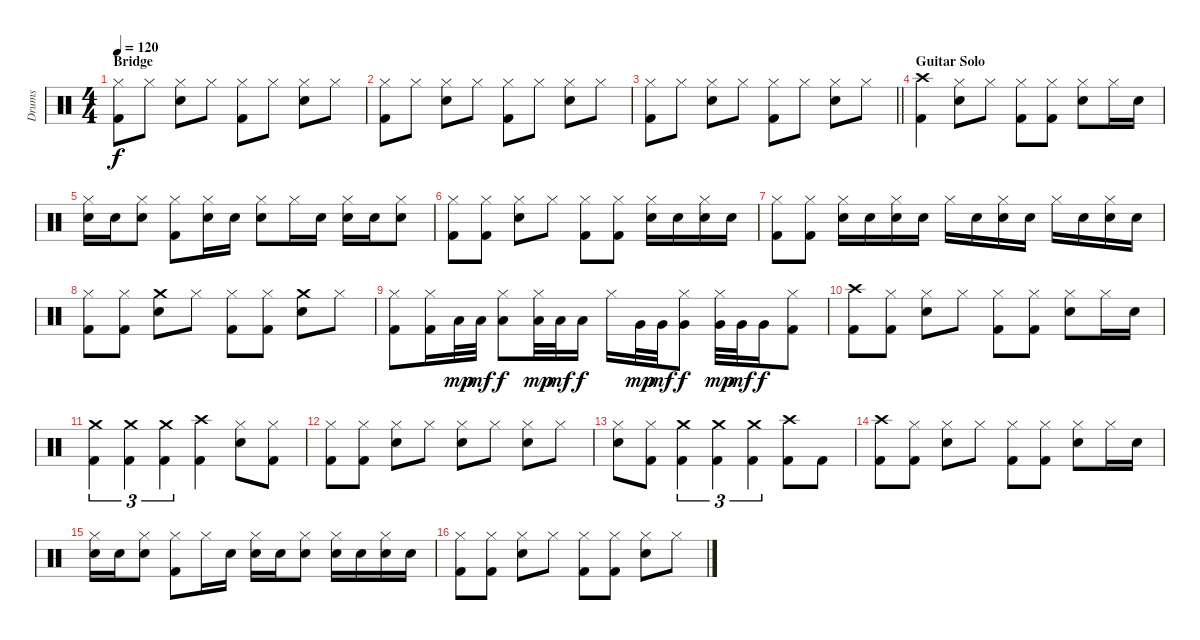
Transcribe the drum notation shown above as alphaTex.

\track ("Drums" "Drums") {instrument percussion}
\staff {score}
\articulation defaults
\ts (4 4)
\section ("" "Bridge")
\tempo 120
\clef neutral
\ks c
("Hi-Hat (closed)" "Kick (hit) 2").8{dy f} "Hi-Hat (closed)".8 ("Hi-Hat (closed)" "Electric Snare (hit)").8 "Hi-Hat (closed)".8 ("Hi-Hat (closed)" "Kick (hit) 2").8 "Hi-Hat (closed)".8 ("Hi-Hat (closed)" "Electric Snare (hit)").8 "Hi-Hat (closed)".8 |
("Hi-Hat (closed)" "Kick (hit) 2").8 "Hi-Hat (closed)".8 ("Hi-Hat (closed)" "Electric Snare (hit)").8 "Hi-Hat (closed)".8 ("Hi-Hat (closed)" "Kick (hit) 2").8 "Hi-Hat (closed)".8 ("Hi-Hat (closed)" "Electric Snare (hit)").8 "Hi-Hat (closed)".8 |
\barLineRight lightlight
("Hi-Hat (closed)" "Kick (hit) 2").8 "Hi-Hat (closed)".8 ("Hi-Hat (closed)" "Electric Snare (hit)").8 "Hi-Hat (closed)".8 ("Hi-Hat (closed)" "Kick (hit) 2").8 "Hi-Hat (closed)".8 ("Hi-Hat (closed)" "Electric Snare (hit)").8 "Hi-Hat (closed)".8 |
\section ("" "Guitar Solo")
("Crash high (hit)" "Kick (hit) 2").4 ("Hi-Hat (closed)" "Electric Snare (hit)").8 "Hi-Hat (closed)".8 ("Hi-Hat (closed)" "Kick (hit) 2").8 ("Hi-Hat (closed)" "Kick (hit) 2").8 ("Hi-Hat (closed)" "Electric Snare (hit)").8 "Hi-Hat (closed)".16 "Electric Snare (hit)".16 |
("Hi-Hat (closed)" "Electric Snare (hit)").16 "Electric Snare (hit)".16 ("Hi-Hat (closed)" "Electric Snare (hit)").8 ("Hi-Hat (closed)" "Kick (hit) 2").8 ("Hi-Hat (closed)" "Electric Snare (hit)").16 "Electric Snare (hit)".16 ("Hi-Hat (closed)" "Electric Snare (hit)").8 "Hi-Hat (closed)".16 "Electric Snare (hit)".16 ("Hi-Hat (closed)" "Electric Snare (hit)").16 "Electric Snare (hit)".16 ("Hi-Hat (closed)" "Electric Snare (hit)").8 |
("Hi-Hat (closed)" "Kick (hit) 2").8 ("Hi-Hat (closed)" "Kick (hit) 2").8 ("Hi-Hat (closed)" "Electric Snare (hit)").8 "Hi-Hat (closed)".8 ("Hi-Hat (closed)" "Kick (hit) 2").8 ("Hi-Hat (closed)" "Kick (hit) 2").8 ("Hi-Hat (closed)" "Electric Snare (hit)").16 "Electric Snare (hit)".16 ("Hi-Hat (closed)" "Electric Snare (hit)").16 "Electric Snare (hit)".16 |
("Hi-Hat (closed)" "Kick (hit) 2").8 ("Hi-Hat (closed)" "Kick (hit) 2").8 ("Hi-Hat (closed)" "Electric Snare (hit)").16 "Electric Snare (hit)".16 ("Hi-Hat (closed)" "Electric Snare (hit)").16 "Electric Snare (hit)".16 "Hi-Hat (closed)".16 "Electric Snare (hit)".16 ("Hi-Hat (closed)" "Electric Snare (hit)").16 "Electric Snare (hit)".16 "Hi-Hat (closed)".16 "Electric Snare (hit)".16 ("Hi-Hat (closed)" "Electric Snare (hit)").16 "Electric Snare (hit)".16 |
("Hi-Hat (closed)" "Kick (hit) 2").8 ("Hi-Hat (closed)" "Kick (hit) 2").8 ("Crash medium (hit)" "Electric Snare (hit)").8 "Hi-Hat (closed)".8 ("Hi-Hat (closed)" "Kick (hit) 2").8 ("Hi-Hat (closed)" "Kick (hit) 2").8 ("Crash medium (hit)" "Electric Snare (hit)").8 "Hi-Hat (closed)".8 |
("Hi-Hat (closed)" "Kick (hit) 2").8 ("Hi-Hat (closed)" "Kick (hit) 2").16 "Low Tom (hit)".32{dy mp} "Low Tom (hit)".32{dy mf} ("Hi-Hat (closed)" "Low Tom (hit)").8{dy f} ("Hi-Hat (closed)" "Low Tom (hit)").32{dy mp} "Low Tom (hit)".32{dy mf} "Low Tom (hit)".16{dy f} "Hi-Hat (closed)".16 "Very Low Tom (hit)".32{dy mp} "Very Low Tom (hit)".32{dy mf} ("Hi-Hat (closed)" "Very Low Tom (hit)").8{dy f} ("Hi-Hat (closed)" "Very Low Tom (hit)").32{dy mp} "Very Low Tom (hit)".32{dy mf} "Very Low Tom (hit)".16{dy f} ("Hi-Hat (closed)" "Kick (hit) 2").8 |
("Crash high (hit)" "Kick (hit) 2").8 ("Hi-Hat (closed)" "Kick (hit) 2").8 ("Hi-Hat (closed)" "Electric Snare (hit)").8 "Hi-Hat (closed)".8 ("Hi-Hat (closed)" "Kick (hit) 2").8 ("Hi-Hat (closed)" "Kick (hit) 2").8 ("Hi-Hat (closed)" "Electric Snare (hit)").8 "Hi-Hat (closed)".16 "Electric Snare (hit)".16 |
("Crash medium (hit)" "Kick (hit) 2").4{tu (3 2)} ("Crash medium (hit)" "Kick (hit) 2").4{tu (3 2)} ("Crash medium (hit)" "Kick (hit) 2").4{tu (3 2)} ("Crash high (hit)" "Kick (hit) 2").4 ("Hi-Hat (closed)" "Electric Snare (hit)").8 ("Hi-Hat (closed)" "Kick (hit) 2").8 |
("Hi-Hat (closed)" "Kick (hit) 2").8 ("Hi-Hat (closed)" "Kick (hit) 2").8 ("Hi-Hat (closed)" "Electric Snare (hit)").8 "Hi-Hat (closed)".8 ("Hi-Hat (closed)" "Electric Snare (hit)").8 "Hi-Hat (closed)".8 ("Hi-Hat (closed)" "Electric Snare (hit)").8 "Hi-Hat (closed)".8 |
("Hi-Hat (closed)" "Electric Snare (hit)").8 ("Hi-Hat (closed)" "Kick (hit) 2").8 ("Crash medium (hit)" "Kick (hit) 2").4{tu (3 2)} ("Crash medium (hit)" "Kick (hit) 2").4{tu (3 2)} ("Crash medium (hit)" "Kick (hit) 2").4{tu (3 2)} ("Crash high (hit)" "Kick (hit) 2").8 "Kick (hit) 2".8 |
("Crash high (hit)" "Kick (hit) 2").8 ("Hi-Hat (closed)" "Kick (hit) 2").8 ("Hi-Hat (closed)" "Electric Snare (hit)").8 "Hi-Hat (closed)".8 ("Hi-Hat (closed)" "Kick (hit) 2").8 ("Hi-Hat (closed)" "Kick (hit) 2").8 ("Hi-Hat (closed)" "Electric Snare (hit)").8 "Hi-Hat (closed)".16 "Electric Snare (hit)".16 |
("Hi-Hat (closed)" "Electric Snare (hit)").16 "Electric Snare (hit)".16 ("Hi-Hat (closed)" "Electric Snare (hit)").8 ("Hi-Hat (closed)" "Kick (hit) 2").8 "Hi-Hat (closed)".16 "Electric Snare (hit)".16 ("Hi-Hat (closed)" "Electric Snare (hit)").16 "Electric Snare (hit)".16 ("Hi-Hat (closed)" "Electric Snare (hit)").8 ("Hi-Hat (closed)" "Electric Snare (hit)").16 "Electric Snare (hit)".16 ("Hi-Hat (closed)" "Electric Snare (hit)").16 "Electric Snare (hit)".16 |
("Hi-Hat (closed)" "Kick (hit) 2").8 ("Hi-Hat (closed)" "Kick (hit) 2").8 ("Hi-Hat (closed)" "Electric Snare (hit)").8 "Hi-Hat (closed)".8 ("Hi-Hat (closed)" "Kick (hit) 2").8 ("Hi-Hat (closed)" "Kick (hit) 2").8 ("Hi-Hat (closed)" "Electric Snare (hit)").8 "Hi-Hat (closed)".8
